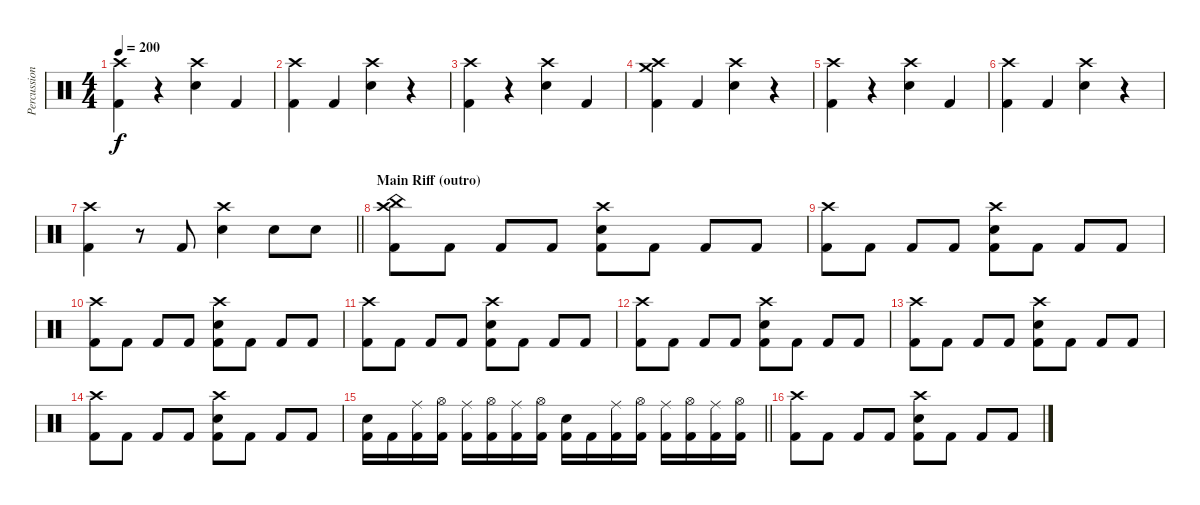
\track ("Percussion" "Percussion") {instrument percussion}
\staff {score}
\articulation defaults
\ts (4 4)
\tempo 200
\clef neutral
\ks c
("Crash high (hit)" "Kick (hit) 2").4{dy f} r.4 ("Crash high (hit)" "Electric Snare (hit)").4 "Kick (hit) 2".4 |
("Crash high (hit)" "Kick (hit) 2").4 "Kick (hit) 2".4 ("Crash high (hit)" "Electric Snare (hit)").4 r.4 |
("Crash high (hit)" "Kick (hit) 2").4 r.4 ("Crash high (hit)" "Electric Snare (hit)").4 "Kick (hit) 2".4 |
("Crash high (hit)" "Crash medium (hit)" "Kick (hit) 2").4 "Kick (hit) 2".4 ("Crash high (hit)" "Electric Snare (hit)").4 r.4 |
("Crash high (hit)" "Kick (hit) 2").4 r.4 ("Crash high (hit)" "Electric Snare (hit)").4 "Kick (hit) 2".4 |
("Crash high (hit)" "Kick (hit) 2").4 "Kick (hit) 2".4 ("Crash high (hit)" "Electric Snare (hit)").4 r.4 |
\barLineRight lightlight
("Crash high (hit)" "Kick (hit) 2").4 r.8 "Kick (hit) 2".8 ("Crash high (hit)" "Electric Snare (hit)").4 "Electric Snare (hit)".8 "Electric Snare (hit)".8 |
\section ("" "Main Riff (outro)")
("Crash high (hit)" "China (hit)" "Kick (hit) 2").8 "Kick (hit) 2".8 "Kick (hit) 2".8 "Kick (hit) 2".8 ("Crash high (hit)" "Electric Snare (hit)" "Kick (hit) 2").8 "Kick (hit) 2".8 "Kick (hit) 2".8 "Kick (hit) 2".8 |
("Crash high (hit)" "Kick (hit) 2").8 "Kick (hit) 2".8 "Kick (hit) 2".8 "Kick (hit) 2".8 ("Crash high (hit)" "Electric Snare (hit)" "Kick (hit) 2").8 "Kick (hit) 2".8 "Kick (hit) 2".8 "Kick (hit) 2".8 |
("Crash high (hit)" "Kick (hit) 2").8 "Kick (hit) 2".8 "Kick (hit) 2".8 "Kick (hit) 2".8 ("Crash high (hit)" "Electric Snare (hit)" "Kick (hit) 2").8 "Kick (hit) 2".8 "Kick (hit) 2".8 "Kick (hit) 2".8 |
("Crash high (hit)" "Kick (hit) 2").8 "Kick (hit) 2".8 "Kick (hit) 2".8 "Kick (hit) 2".8 ("Crash high (hit)" "Electric Snare (hit)" "Kick (hit) 2").8 "Kick (hit) 2".8 "Kick (hit) 2".8 "Kick (hit) 2".8 |
("Crash high (hit)" "Kick (hit) 2").8 "Kick (hit) 2".8 "Kick (hit) 2".8 "Kick (hit) 2".8 ("Crash high (hit)" "Electric Snare (hit)" "Kick (hit) 2").8 "Kick (hit) 2".8 "Kick (hit) 2".8 "Kick (hit) 2".8 |
("Crash high (hit)" "Kick (hit) 2").8 "Kick (hit) 2".8 "Kick (hit) 2".8 "Kick (hit) 2".8 ("Crash high (hit)" "Electric Snare (hit)" "Kick (hit) 2").8 "Kick (hit) 2".8 "Kick (hit) 2".8 "Kick (hit) 2".8 |
("Crash high (hit)" "Kick (hit) 2").8 "Kick (hit) 2".8 "Kick (hit) 2".8 "Kick (hit) 2".8 ("Crash high (hit)" "Electric Snare (hit)" "Kick (hit) 2").8 "Kick (hit) 2".8 "Kick (hit) 2".8 "Kick (hit) 2".8 |
\barLineRight lightlight
("Electric Snare (hit)" "Kick (hit) 2").16 "Kick (hit) 2".16 ("Ride (middle)" "Kick (hit) 2").16 ("Hi-Hat (open)" "Kick (hit) 2").16 ("Ride (middle)" "Kick (hit) 2").16 ("Hi-Hat (open)" "Kick (hit) 2").16 ("Ride (middle)" "Kick (hit) 2").16 ("Hi-Hat (open)" "Kick (hit) 2").16 ("Electric Snare (hit)" "Kick (hit) 2").16 "Kick (hit) 2".16 ("Ride (middle)" "Kick (hit) 2").16 ("Hi-Hat (open)" "Kick (hit) 2").16 ("Ride (middle)" "Kick (hit) 2").16 ("Hi-Hat (open)" "Kick (hit) 2").16 ("Ride (middle)" "Kick (hit) 2").16 ("Hi-Hat (open)" "Kick (hit) 2").16 |
("Crash high (hit)" "Kick (hit) 2").8 "Kick (hit) 2".8 "Kick (hit) 2".8 "Kick (hit) 2".8 ("Crash high (hit)" "Electric Snare (hit)" "Kick (hit) 2").8 "Kick (hit) 2".8 "Kick (hit) 2".8 "Kick (hit) 2".8
